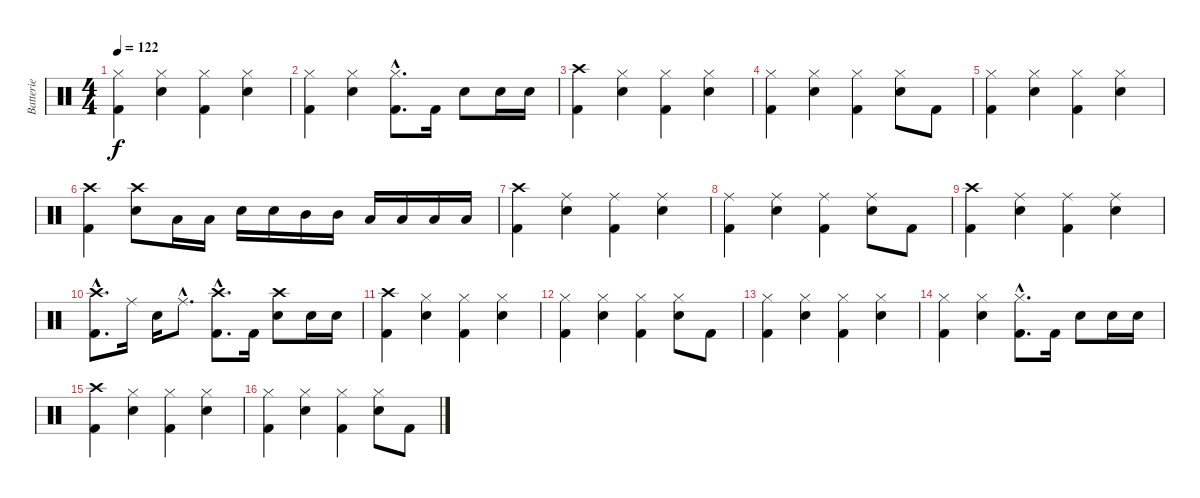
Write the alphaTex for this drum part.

\track ("Batterie" "Batterie") {instrument percussion}
\staff {score}
\articulation defaults
\ts (4 4)
\tempo 122
\clef neutral
\ks c
("Hi-Hat (closed)" "Kick (hit) 2").4{dy f} ("Hi-Hat (closed)" "Snare (hit) 2").4 ("Hi-Hat (closed)" "Kick (hit) 2").4 ("Hi-Hat (closed)" "Snare (hit) 2").4 |
("Hi-Hat (closed)" "Kick (hit) 2").4 ("Hi-Hat (closed)" "Snare (hit) 2").4 ("Hi-Hat (closed)"{hac} "Kick (hit) 2"{hac}).8{d} "Kick (hit) 2".16 "Snare (hit) 2".8 "Snare (hit) 2".16 "Snare (hit) 2".16 |
("Crash high (hit)" "Kick (hit) 2").4 ("Hi-Hat (closed)" "Snare (hit) 2").4 ("Hi-Hat (closed)" "Kick (hit) 2").4 ("Hi-Hat (closed)" "Snare (hit) 2").4 |
("Hi-Hat (closed)" "Kick (hit) 2").4 ("Hi-Hat (closed)" "Snare (hit) 2").4 ("Hi-Hat (closed)" "Kick (hit) 2").4 ("Hi-Hat (closed)" "Snare (hit) 2").8 "Kick (hit) 2".8 |
("Hi-Hat (closed)" "Kick (hit) 2").4 ("Hi-Hat (closed)" "Snare (hit) 2").4 ("Hi-Hat (closed)" "Kick (hit) 2").4 ("Hi-Hat (closed)" "Snare (hit) 2").4 |
("Crash high (hit)" "Kick (hit) 2").4 ("Crash high (hit)" "Snare (hit) 2").8 "Low Tom (hit)".16 "Low Tom (hit)".16 "Snare (hit) 2".16 "Snare (hit) 2".16 "Mid Tom (hit)".16 "Mid Tom (hit)".16 "Low Tom (hit)".16 "Low Tom (hit)".16 "Low Floor Tom (hit)".16 "Low Floor Tom (hit)".16 |
("Crash high (hit)" "Kick (hit) 2").4 ("Ride (middle)" "Snare (hit) 2").4 ("Ride (middle)" "Kick (hit) 2").4 ("Ride (middle)" "Snare (hit) 2").4 |
("Ride (middle)" "Kick (hit) 2").4 ("Ride (middle)" "Snare (hit) 2").4 ("Ride (middle)" "Kick (hit) 2").4 ("Ride (middle)" "Snare (hit) 2").8 "Kick (hit) 2".8 |
("Crash high (hit)" "Kick (hit) 2").4 ("Ride (middle)" "Snare (hit) 2").4 ("Ride (middle)" "Kick (hit) 2").4 ("Ride (middle)" "Snare (hit) 2").4 |
("Crash high (hit)"{hac} "Kick (hit) 2"{hac}).8{d} "Ride (middle)".16 "Snare (hit) 2".16 "Ride (middle)"{hac}.8{d} ("Crash high (hit)"{hac} "Kick (hit) 2"{hac}).8{d} "Kick (hit) 2".16 ("Crash high (hit)" "Snare (hit) 2").8 "Snare (hit) 2".16 "Snare (hit) 2".16 |
("Crash high (hit)" "Kick (hit) 2").4 ("Hi-Hat (closed)" "Snare (hit) 2").4 ("Hi-Hat (closed)" "Kick (hit) 2").4 ("Hi-Hat (closed)" "Snare (hit) 2").4 |
("Hi-Hat (closed)" "Kick (hit) 2").4 ("Hi-Hat (closed)" "Snare (hit) 2").4 ("Hi-Hat (closed)" "Kick (hit) 2").4 ("Hi-Hat (closed)" "Snare (hit) 2").8 "Kick (hit) 2".8 |
("Hi-Hat (closed)" "Kick (hit) 2").4 ("Hi-Hat (closed)" "Snare (hit) 2").4 ("Hi-Hat (closed)" "Kick (hit) 2").4 ("Hi-Hat (closed)" "Snare (hit) 2").4 |
("Hi-Hat (closed)" "Kick (hit) 2").4 ("Hi-Hat (closed)" "Snare (hit) 2").4 ("Hi-Hat (closed)"{hac} "Kick (hit) 2"{hac}).8{d} "Kick (hit) 2".16 "Snare (hit) 2".8 "Snare (hit) 2".16 "Snare (hit) 2".16 |
("Crash high (hit)" "Kick (hit) 2").4 ("Hi-Hat (closed)" "Snare (hit) 2").4 ("Hi-Hat (closed)" "Kick (hit) 2").4 ("Hi-Hat (closed)" "Snare (hit) 2").4 |
("Hi-Hat (closed)" "Kick (hit) 2").4 ("Hi-Hat (closed)" "Snare (hit) 2").4 ("Hi-Hat (closed)" "Kick (hit) 2").4 ("Hi-Hat (closed)" "Snare (hit) 2").8 "Kick (hit) 2".8
